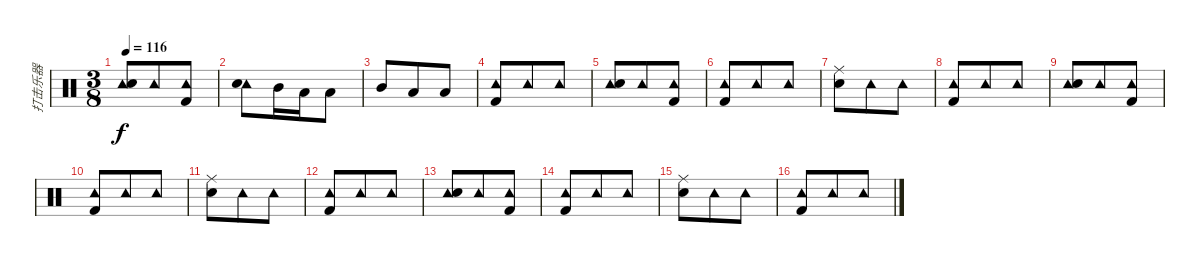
\track ("打击乐器" "打击乐器") {instrument percussion}
\staff {score}
\articulation defaults
\ts (3 8)
\tempo 116
\clef neutral
\ks c
("Tambourine (hit)" "Snare (hit) 2").8{dy f} "Tambourine (hit)".8 ("Tambourine (hit)" "Kick (hit) 2").8 |
("Tambourine (hit)" "Snare (hit) 2").8 "Mid Tom (hit)".16 "Low Tom (hit)".16 "Low Floor Tom (hit)".8 |
"Mid Tom (hit)".8 "Low Tom (hit)".8 "Low Floor Tom (hit)".8 |
("Tambourine (hit)" "Kick (hit) 2").8 "Tambourine (hit)".8 "Tambourine (hit)".8 |
("Tambourine (hit)" "Snare (hit) 2").8 "Tambourine (hit)".8 ("Tambourine (hit)" "Kick (hit) 2").8 |
("Tambourine (hit)" "Kick (hit) 2").8 "Tambourine (hit)".8 "Tambourine (hit)".8 |
("Ride (middle)" "Snare (hit) 2").8 "Tambourine (hit)".8 "Tambourine (hit)".8 |
("Tambourine (hit)" "Kick (hit) 2").8 "Tambourine (hit)".8 "Tambourine (hit)".8 |
("Tambourine (hit)" "Snare (hit) 2").8 "Tambourine (hit)".8 ("Tambourine (hit)" "Kick (hit) 2").8 |
("Tambourine (hit)" "Kick (hit) 2").8 "Tambourine (hit)".8 "Tambourine (hit)".8 |
("Ride (middle)" "Snare (hit) 2").8 "Tambourine (hit)".8 "Tambourine (hit)".8 |
("Tambourine (hit)" "Kick (hit) 2").8 "Tambourine (hit)".8 "Tambourine (hit)".8 |
("Tambourine (hit)" "Snare (hit) 2").8 "Tambourine (hit)".8 ("Tambourine (hit)" "Kick (hit) 2").8 |
("Tambourine (hit)" "Kick (hit) 2").8 "Tambourine (hit)".8 "Tambourine (hit)".8 |
("Ride (middle)" "Snare (hit) 2").8 "Tambourine (hit)".8 "Tambourine (hit)".8 |
("Tambourine (hit)" "Kick (hit) 2").8 "Tambourine (hit)".8 "Tambourine (hit)".8
